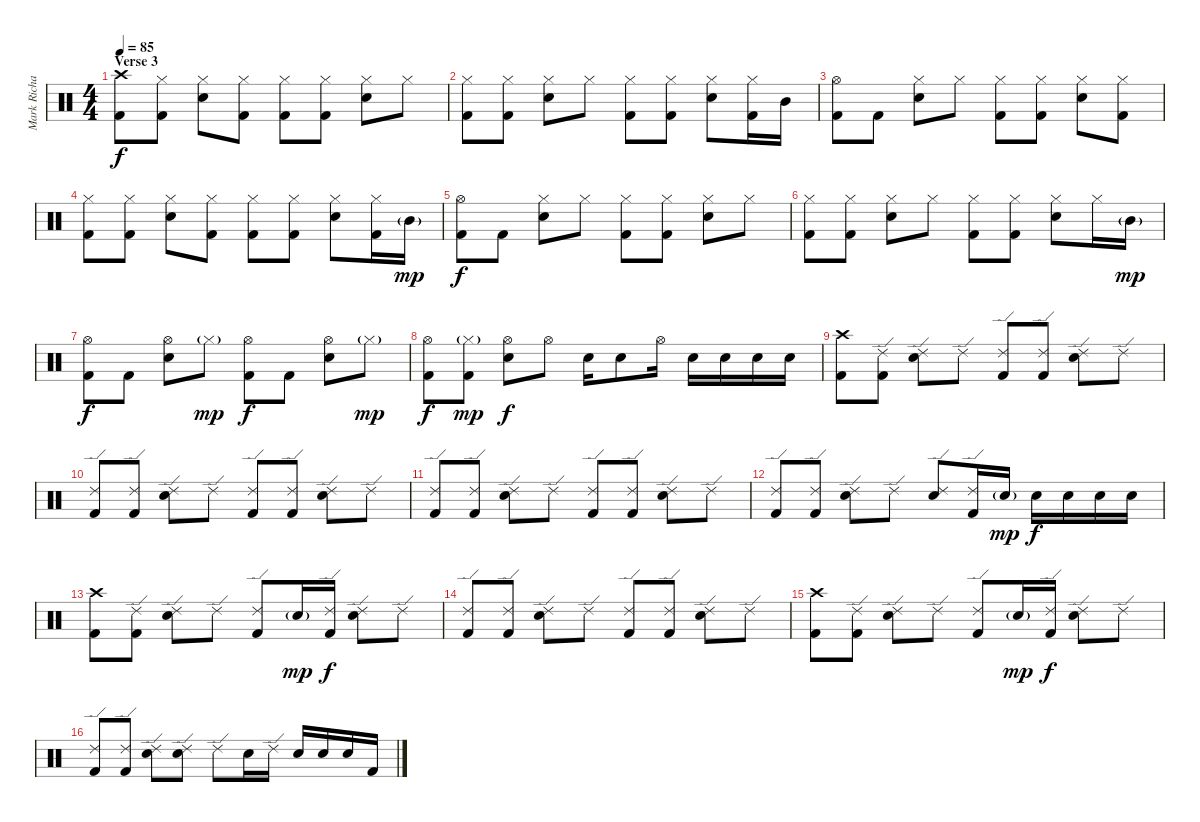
\track ("Mark Richardson" "Mark Richa") {instrument percussion}
\staff {score}
\articulation defaults
\ts (4 4)
\section ("" "Verse 3")
\tempo 85
\clef neutral
\ks c
("Crash high (hit)" "Kick (hit) 2").8{dy f} ("Hi-Hat (closed)" "Kick (hit) 2").8 ("Hi-Hat (closed)" "Snare (hit) 2").8 ("Hi-Hat (closed)" "Kick (hit) 2").8 ("Hi-Hat (closed)" "Kick (hit) 2").8 ("Hi-Hat (closed)" "Kick (hit) 2").8 ("Hi-Hat (closed)" "Snare (hit) 2").8 "Hi-Hat (closed)".8 |
("Hi-Hat (closed)" "Kick (hit) 2").8 ("Hi-Hat (closed)" "Kick (hit) 2").8 ("Hi-Hat (closed)" "Snare (hit) 2").8 "Hi-Hat (closed)".8 ("Hi-Hat (closed)" "Kick (hit) 2").8 ("Hi-Hat (closed)" "Kick (hit) 2").8 ("Hi-Hat (closed)" "Snare (hit) 2").8 ("Hi-Hat (closed)" "Kick (hit) 2").16 "Mid Tom (hit)".16 |
("Hi-Hat (open)" "Kick (hit) 2").8 "Kick (hit) 2".8 ("Hi-Hat (closed)" "Snare (hit) 2").8 "Hi-Hat (closed)".8 ("Hi-Hat (closed)" "Kick (hit) 2").8 ("Hi-Hat (closed)" "Kick (hit) 2").8 ("Hi-Hat (closed)" "Snare (hit) 2").8 ("Hi-Hat (closed)" "Kick (hit) 2").8 |
("Hi-Hat (closed)" "Kick (hit) 2").8 ("Hi-Hat (closed)" "Kick (hit) 2").8 ("Hi-Hat (closed)" "Snare (hit) 2").8 ("Hi-Hat (closed)" "Kick (hit) 2").8 ("Hi-Hat (closed)" "Kick (hit) 2").8 ("Hi-Hat (closed)" "Kick (hit) 2").8 ("Hi-Hat (closed)" "Snare (hit) 2").8 ("Hi-Hat (closed)" "Kick (hit) 2").16 "Mid Tom (hit)"{g}.16{dy mp} |
("Hi-Hat (open)" "Kick (hit) 2").8{dy f} "Kick (hit) 2".8 ("Hi-Hat (closed)" "Snare (hit) 2").8 "Hi-Hat (closed)".8 ("Hi-Hat (closed)" "Kick (hit) 2").8 ("Hi-Hat (closed)" "Kick (hit) 2").8 ("Hi-Hat (closed)" "Snare (hit) 2").8 "Hi-Hat (closed)".8 |
("Hi-Hat (closed)" "Kick (hit) 2").8 ("Hi-Hat (closed)" "Kick (hit) 2").8 ("Hi-Hat (closed)" "Snare (hit) 2").8 "Hi-Hat (closed)".8 ("Hi-Hat (closed)" "Kick (hit) 2").8 ("Hi-Hat (closed)" "Kick (hit) 2").8 ("Hi-Hat (closed)" "Snare (hit) 2").8 "Hi-Hat (closed)".16 "Mid Tom (hit)"{g}.16{dy mp} |
("Hi-Hat (open)" "Kick (hit) 2").8{dy f} "Kick (hit) 2".8 ("Hi-Hat (open)" "Snare (hit) 2").8 "Hi-Hat (closed)"{g}.8{dy mp} ("Hi-Hat (open)" "Kick (hit) 2").8{dy f} "Kick (hit) 2".8 ("Hi-Hat (open)" "Snare (hit) 2").8 "Hi-Hat (closed)"{g}.8{dy mp} |
("Hi-Hat (open)" "Kick (hit) 2").8{dy f} ("Hi-Hat (closed)"{g} "Kick (hit) 2").8{dy mp} ("Hi-Hat (open)" "Snare (hit) 2").8{dy f} "Hi-Hat (open)".8 "Snare (hit) 2".16 "Snare (hit) 2".8 "Hi-Hat (open)".16 "Snare (hit) 2".16 "Snare (hit) 2".16 "Snare (hit) 2".16 "Snare (hit) 2".16 |
("Crash high (hit)" "Kick (hit) 2").8{volume 16} ("Ride (edge) 2" "Kick (hit) 2").8 ("Ride (edge) 2" "Snare (hit) 2").8 "Ride (edge) 2".8 ("Ride (edge) 2" "Kick (hit) 2").8 ("Ride (edge) 2" "Kick (hit) 2").8 ("Ride (edge) 2" "Snare (hit) 2").8 "Ride (edge) 2".8 |
("Ride (edge) 2" "Kick (hit) 2").8 ("Ride (edge) 2" "Kick (hit) 2").8 ("Ride (edge) 2" "Snare (hit) 2").8 "Ride (edge) 2".8 ("Ride (edge) 2" "Kick (hit) 2").8 ("Ride (edge) 2" "Kick (hit) 2").8 ("Ride (edge) 2" "Snare (hit) 2").8 "Ride (edge) 2".8 |
("Ride (edge) 2" "Kick (hit) 2").8 ("Ride (edge) 2" "Kick (hit) 2").8 ("Ride (edge) 2" "Snare (hit) 2").8 "Ride (edge) 2".8 ("Ride (edge) 2" "Kick (hit) 2").8 ("Ride (edge) 2" "Kick (hit) 2").8 ("Ride (edge) 2" "Snare (hit) 2").8 "Ride (edge) 2".8 |
("Ride (edge) 2" "Kick (hit) 2").8 ("Ride (edge) 2" "Kick (hit) 2").8 ("Ride (edge) 2" "Snare (hit) 2").8 "Ride (edge) 2".8 ("Ride (edge) 2" "Snare (hit) 2").8 ("Ride (edge) 2" "Kick (hit) 2").16 "Snare (hit) 2"{g}.16{dy mp} "Snare (hit) 2".16{dy f} "Snare (hit) 2".16 "Snare (hit) 2".16 "Snare (hit) 2".16 |
("Crash high (hit)" "Kick (hit) 2").8 ("Ride (edge) 2" "Kick (hit) 2").8 ("Ride (edge) 2" "Snare (hit) 2").8 "Ride (edge) 2".8 ("Ride (edge) 2" "Kick (hit) 2").8 "Snare (hit) 2"{g}.16{dy mp} ("Ride (edge) 2" "Kick (hit) 2").16{dy f} ("Ride (edge) 2" "Snare (hit) 2").8 "Ride (edge) 2".8 |
("Ride (edge) 2" "Kick (hit) 2").8 ("Ride (edge) 2" "Kick (hit) 2").8 ("Ride (edge) 2" "Snare (hit) 2").8 "Ride (edge) 2".8 ("Ride (edge) 2" "Kick (hit) 2").8 ("Ride (edge) 2" "Kick (hit) 2").8 ("Ride (edge) 2" "Snare (hit) 2").8 "Ride (edge) 2".8 |
("Crash high (hit)" "Kick (hit) 2").8 ("Ride (edge) 2" "Kick (hit) 2").8 ("Ride (edge) 2" "Snare (hit) 2").8 "Ride (edge) 2".8 ("Ride (edge) 2" "Kick (hit) 2").8 "Snare (hit) 2"{g}.16{dy mp} ("Ride (edge) 2" "Kick (hit) 2").16{dy f} ("Ride (edge) 2" "Snare (hit) 2").8 "Ride (edge) 2".8 |
("Ride (edge) 2" "Kick (hit) 2").8 ("Ride (edge) 2" "Kick (hit) 2").8 ("Ride (edge) 2" "Snare (hit) 2").8 ("Ride (edge) 2" "Snare (hit) 2").8 "Ride (edge) 2".8 "Snare (hit) 2".16 "Ride (edge) 2".16 "Snare (hit) 2".16 "Snare (hit) 2".16 "Snare (hit) 2".16 "Kick (hit) 2".16
